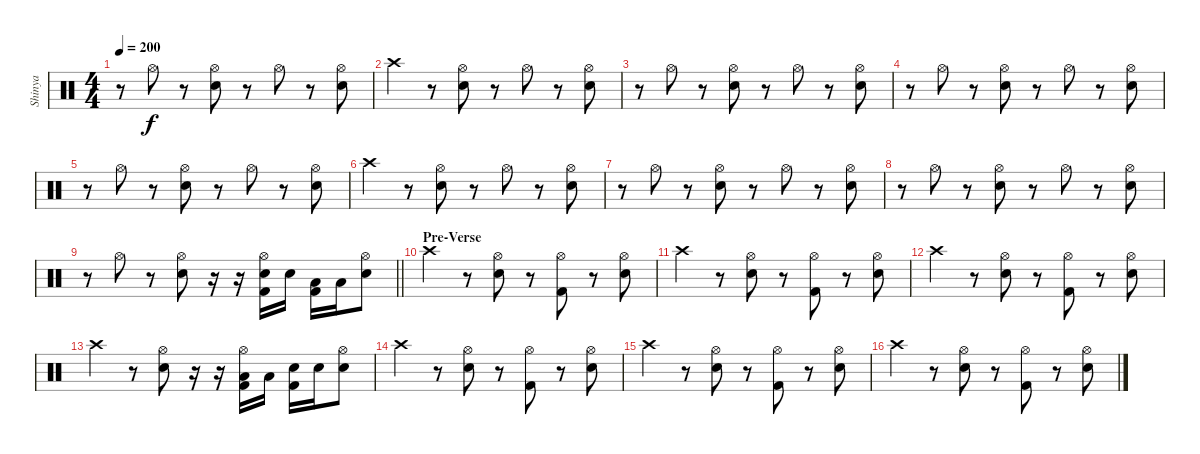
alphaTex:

\track ("Shinya" "Shinya") {instrument percussion}
\staff {score}
\articulation defaults
\ts (4 4)
\tempo 200
\clef neutral
\ks c
r.8{dy f} "Hi-Hat (open)".8 r.8 ("Hi-Hat (open)" "Electric Snare (hit)").8 r.8 "Hi-Hat (open)".8 r.8 ("Hi-Hat (open)" "Electric Snare (hit)").8 |
"Crash high (hit)".4 r.8 ("Hi-Hat (open)" "Electric Snare (hit)").8 r.8 "Hi-Hat (open)".8 r.8 ("Hi-Hat (open)" "Electric Snare (hit)").8 |
r.8 "Hi-Hat (open)".8 r.8 ("Hi-Hat (open)" "Electric Snare (hit)").8 r.8 "Hi-Hat (open)".8 r.8 ("Hi-Hat (open)" "Electric Snare (hit)").8 |
r.8 "Hi-Hat (open)".8 r.8 ("Hi-Hat (open)" "Electric Snare (hit)").8 r.8 "Hi-Hat (open)".8 r.8 ("Hi-Hat (open)" "Electric Snare (hit)").8 |
r.8 "Hi-Hat (open)".8 r.8 ("Hi-Hat (open)" "Electric Snare (hit)").8 r.8 "Hi-Hat (open)".8 r.8 ("Hi-Hat (open)" "Electric Snare (hit)").8 |
"Crash high (hit)".4 r.8 ("Hi-Hat (open)" "Electric Snare (hit)").8 r.8 "Hi-Hat (open)".8 r.8 ("Hi-Hat (open)" "Electric Snare (hit)").8 |
r.8 "Hi-Hat (open)".8 r.8 ("Hi-Hat (open)" "Electric Snare (hit)").8 r.8 "Hi-Hat (open)".8 r.8 ("Hi-Hat (open)" "Electric Snare (hit)").8 |
r.8 "Hi-Hat (open)".8 r.8 ("Hi-Hat (open)" "Electric Snare (hit)").8 r.8 "Hi-Hat (open)".8 r.8 ("Hi-Hat (open)" "Electric Snare (hit)").8 |
\barLineRight lightlight
r.8 "Hi-Hat (open)".8 r.8 ("Hi-Hat (open)" "Electric Snare (hit)").8 r.16 r.16 ("Hi-Hat (open)" "Kick (hit) 2" "Electric Snare (hit)").16 "Electric Snare (hit)".16 ("Kick (hit) 2" "Low Tom (hit)").16 "Low Tom (hit)".16 ("Hi-Hat (open)" "Electric Snare (hit)").8 |
\section ("" "Pre-Verse")
"Crash high (hit)".4 r.8 ("Hi-Hat (open)" "Electric Snare (hit)").8 r.8 ("Hi-Hat (open)" "Kick (hit) 2").8 r.8 ("Hi-Hat (open)" "Electric Snare (hit)").8 |
"Crash high (hit)".4 r.8 ("Hi-Hat (open)" "Electric Snare (hit)").8 r.8 ("Hi-Hat (open)" "Kick (hit) 2").8 r.8 ("Hi-Hat (open)" "Electric Snare (hit)").8 |
"Crash high (hit)".4 r.8 ("Hi-Hat (open)" "Electric Snare (hit)").8 r.8 ("Hi-Hat (open)" "Kick (hit) 2").8 r.8 ("Hi-Hat (open)" "Electric Snare (hit)").8 |
"Crash high (hit)".4 r.8 ("Hi-Hat (open)" "Electric Snare (hit)").8 r.16 r.16 ("Hi-Hat (open)" "Kick (hit) 2" "Low Tom (hit)").16 "Low Tom (hit)".16 ("Kick (hit) 2" "Electric Snare (hit)").16 "Electric Snare (hit)".16 ("Hi-Hat (open)" "Electric Snare (hit)").8 |
"Crash high (hit)".4 r.8 ("Hi-Hat (open)" "Electric Snare (hit)").8 r.8 ("Hi-Hat (open)" "Kick (hit) 2").8 r.8 ("Hi-Hat (open)" "Electric Snare (hit)").8 |
"Crash high (hit)".4 r.8 ("Hi-Hat (open)" "Electric Snare (hit)").8 r.8 ("Hi-Hat (open)" "Kick (hit) 2").8 r.8 ("Hi-Hat (open)" "Electric Snare (hit)").8 |
"Crash high (hit)".4 r.8 ("Hi-Hat (open)" "Electric Snare (hit)").8 r.8 ("Hi-Hat (open)" "Kick (hit) 2").8 r.8 ("Hi-Hat (open)" "Electric Snare (hit)").8
